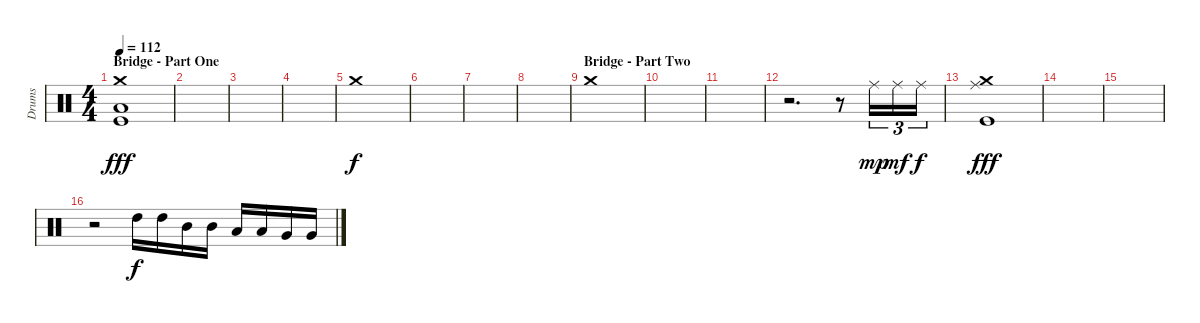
\track ("Drums" "Drums") {instrument percussion}
\staff {score}
\articulation defaults
\ts (4 4)
\section ("" "Bridge - Part One")
\tempo 112
\clef neutral
\ks c
("Crash medium (hit)" "Low Floor Tom (hit)" "Kick (hit)").1{dy fff} |
|
|
|
"Crash medium (hit)".1{dy f} |
|
|
|
\section ("" "Bridge - Part Two")
"Crash medium (hit)".1 |
|
|
r.2{d} r.8 "Ride (middle)".16{tu (3 2) dy mp} "Ride (middle)".16{tu (3 2) dy mf} "Ride (middle)".16{tu (3 2) dy f} |
("Crash medium (hit)" "Ride (middle)" "Kick (hit)").1{dy fff} |
|
|
r.2 "High Tom (hit)".16{dy f} "High Tom (hit)".16 "Mid Tom (hit)".16 "Mid Tom (hit)".16 "Low Tom (hit)".16 "Low Tom (hit)".16 "Very Low Tom (hit)".16 "Very Low Tom (hit)".16
